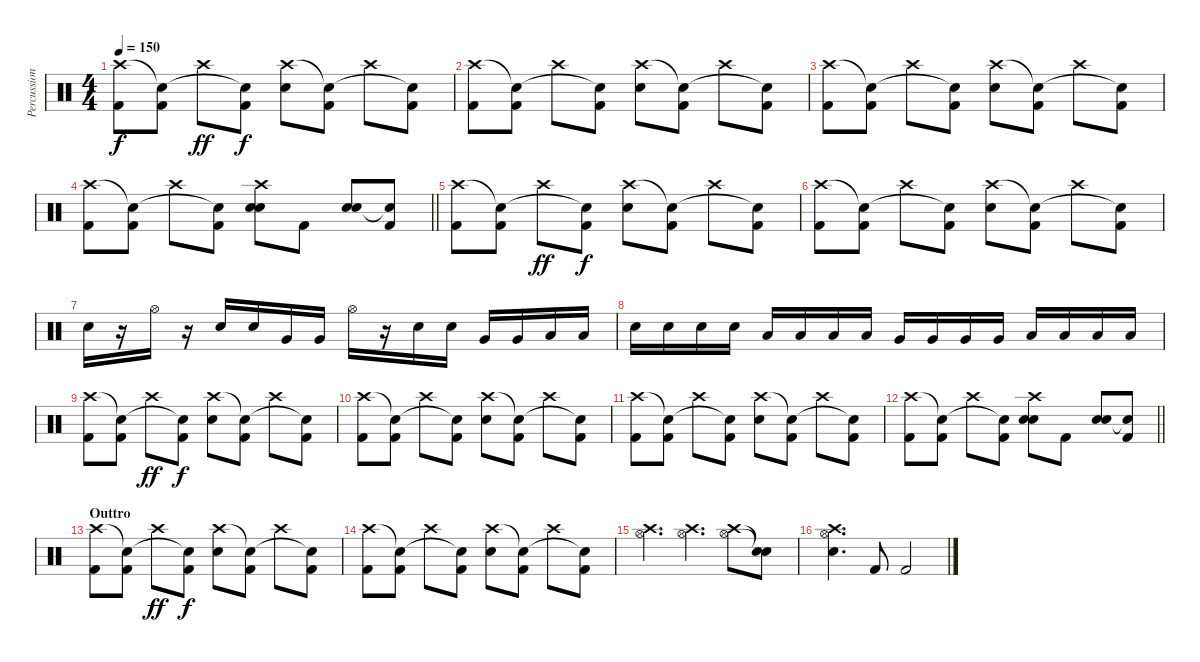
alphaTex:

\track ("Percussion" "Percussion") {instrument percussion}
\staff {score}
\articulation defaults
\ts (4 4)
\tempo 150
\clef neutral
\ks c
("Kick (hit) 2" "Crash high (hit)").8{dy f} ("Kick (hit) 2" "Snare (hit)"{t}).8 "Crash high (hit)".8{dy ff} ("Kick (hit) 2" "Snare (hit)"{t}).8{dy f} ("Snare (hit) 2" "Crash high (hit)").8 ("Kick (hit) 2" "Snare (hit)"{t}).8 "Crash high (hit)".8 ("Kick (hit) 2" "Snare (hit)"{t}).8 |
("Kick (hit) 2" "Crash high (hit)").8 ("Kick (hit) 2" "Snare (hit)"{t}).8 "Crash high (hit)".8 ("Kick (hit) 2" "Snare (hit)"{t}).8 ("Snare (hit) 2" "Crash high (hit)").8 ("Kick (hit) 2" "Snare (hit)"{t}).8 "Crash high (hit)".8 ("Kick (hit) 2" "Snare (hit)"{t}).8 |
("Kick (hit) 2" "Crash high (hit)").8 ("Kick (hit) 2" "Snare (hit)"{t}).8 "Crash high (hit)".8 ("Kick (hit) 2" "Snare (hit)"{t}).8 ("Snare (hit) 2" "Crash high (hit)").8 ("Kick (hit) 2" "Snare (hit)"{t}).8 "Crash high (hit)".8 ("Kick (hit) 2" "Snare (hit)"{t}).8 |
\barLineRight lightlight
("Kick (hit) 2" "Crash high (hit)").8 ("Kick (hit) 2" "Snare (hit)"{t}).8 "Crash high (hit)".8 ("Kick (hit) 2" "Snare (hit)"{t}).8 ("Snare (hit) 2" "Electric Snare (hit)" "Crash high (hit)").8 "Kick (hit) 2".8 ("Snare (hit) 2" "Electric Snare (hit)").8 ("Kick (hit) 2" "Snare (hit)"{t}).8 |
("Kick (hit) 2" "Crash high (hit)").8 ("Kick (hit) 2" "Snare (hit)"{t}).8 "Crash high (hit)".8{dy ff} ("Kick (hit) 2" "Snare (hit)"{t}).8{dy f} ("Snare (hit) 2" "Crash high (hit)").8 ("Kick (hit) 2" "Snare (hit)"{t}).8 "Crash high (hit)".8 ("Kick (hit) 2" "Snare (hit)"{t}).8 |
("Kick (hit) 2" "Crash high (hit)").8 ("Kick (hit) 2" "Snare (hit)"{t}).8 "Crash high (hit)".8 ("Kick (hit) 2" "Snare (hit)"{t}).8 ("Snare (hit) 2" "Crash high (hit)").8 ("Kick (hit) 2" "Snare (hit)"{t}).8 "Crash high (hit)".8 ("Kick (hit) 2" "Snare (hit)"{t}).8 |
"Snare (hit) 2".16 r.16 "Hi-Hat (open)".16 r.16 "Snare (hit) 2".16 "Snare (hit) 2".16 "Very Low Tom (hit)".16 "Very Low Tom (hit)".16 "Hi-Hat (open)".16 r.16 "Snare (hit) 2".16 "Snare (hit) 2".16 "Very Low Tom (hit)".16 "Very Low Tom (hit)".16 "Low Floor Tom (hit)".16 "Low Floor Tom (hit)".16 |
"Snare (hit) 2".16 "Snare (hit) 2".16 "Snare (hit) 2".16 "Snare (hit) 2".16 "Low Tom (hit)".16 "Low Tom (hit)".16 "Low Tom (hit)".16 "Low Tom (hit)".16 "Very Low Tom (hit)".16 "Very Low Tom (hit)".16 "Very Low Tom (hit)".16 "Very Low Tom (hit)".16 "Low Floor Tom (hit)".16 "Low Floor Tom (hit)".16 "Low Floor Tom (hit)".16 "Low Floor Tom (hit)".16 |
("Kick (hit) 2" "Crash high (hit)").8 ("Kick (hit) 2" "Snare (hit)"{t}).8 "Crash high (hit)".8{dy ff} ("Kick (hit) 2" "Snare (hit)"{t}).8{dy f} ("Snare (hit) 2" "Crash high (hit)").8 ("Kick (hit) 2" "Snare (hit)"{t}).8 "Crash high (hit)".8 ("Kick (hit) 2" "Snare (hit)"{t}).8 |
("Kick (hit) 2" "Crash high (hit)").8 ("Kick (hit) 2" "Snare (hit)"{t}).8 "Crash high (hit)".8 ("Kick (hit) 2" "Snare (hit)"{t}).8 ("Snare (hit) 2" "Crash high (hit)").8 ("Kick (hit) 2" "Snare (hit)"{t}).8 "Crash high (hit)".8 ("Kick (hit) 2" "Snare (hit)"{t}).8 |
("Kick (hit) 2" "Crash high (hit)").8 ("Kick (hit) 2" "Snare (hit)"{t}).8 "Crash high (hit)".8 ("Kick (hit) 2" "Snare (hit)"{t}).8 ("Snare (hit) 2" "Crash high (hit)").8 ("Kick (hit) 2" "Snare (hit)"{t}).8 "Crash high (hit)".8 ("Kick (hit) 2" "Snare (hit)"{t}).8 |
\barLineRight lightlight
("Kick (hit) 2" "Crash high (hit)").8 ("Kick (hit) 2" "Snare (hit)"{t}).8 "Crash high (hit)".8 ("Kick (hit) 2" "Snare (hit)"{t}).8 ("Snare (hit) 2" "Electric Snare (hit)" "Crash high (hit)").8 "Kick (hit) 2".8 ("Snare (hit) 2" "Electric Snare (hit)").8 ("Kick (hit) 2" "Snare (hit)"{t}).8 |
\section ("" "Outtro")
("Kick (hit) 2" "Crash high (hit)").8 ("Kick (hit) 2" "Snare (hit)"{t}).8 "Crash high (hit)".8{dy ff} ("Kick (hit) 2" "Snare (hit)"{t}).8{dy f} ("Snare (hit) 2" "Crash high (hit)").8 ("Kick (hit) 2" "Snare (hit)"{t}).8 "Crash high (hit)".8 ("Kick (hit) 2" "Snare (hit)"{t}).8 |
("Kick (hit) 2" "Crash high (hit)").8 ("Kick (hit) 2" "Snare (hit)"{t}).8 "Crash high (hit)".8 ("Kick (hit) 2" "Snare (hit)"{t}).8 ("Snare (hit) 2" "Crash high (hit)").8 ("Kick (hit) 2" "Snare (hit)"{t}).8 "Crash high (hit)".8 ("Kick (hit) 2" "Snare (hit)"{t}).8 |
("Hi-Hat (open)" "Crash high (hit)").4{d} ("Hi-Hat (open)" "Crash high (hit)").4{d} ("Hi-Hat (open)" "Crash high (hit)").8 ("Snare (hit)"{t} "Snare (hit)"{t}).8 |
("Hi-Hat (open)" "Snare (hit) 2" "Crash high (hit)").4{d} "Kick (hit) 2".8 "Kick (hit) 2".2
